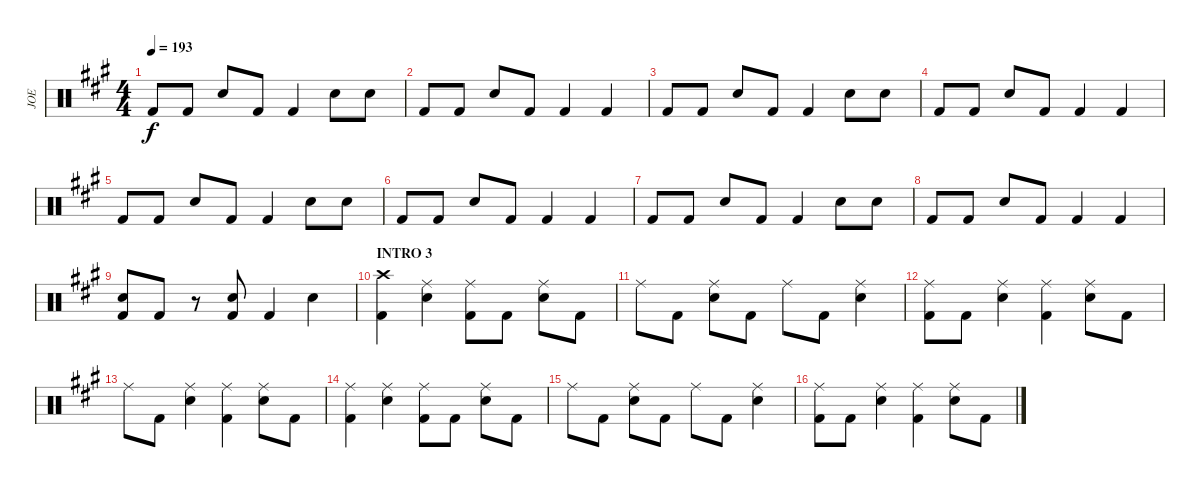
\track ("JOE" "JOE") {instrument percussion}
\staff {score}
\articulation defaults
\ts (4 4)
\tempo 193
\clef neutral
\ks a "Kick (hit) 2".8{dy f} "Kick (hit) 2".8 "Snare (hit) 2".8 "Kick (hit) 2".8 "Kick (hit) 2".4 "Snare (hit) 2".8 "Snare (hit) 2".8
|
"Kick (hit) 2".8 "Kick (hit) 2".8 "Snare (hit) 2".8 "Kick (hit) 2".8 "Kick (hit) 2".4 "Kick (hit) 2".4 |
"Kick (hit) 2".8 "Kick (hit) 2".8 "Snare (hit) 2".8 "Kick (hit) 2".8 "Kick (hit) 2".4 "Snare (hit) 2".8 "Snare (hit) 2".8 |
"Kick (hit) 2".8 "Kick (hit) 2".8 "Snare (hit) 2".8 "Kick (hit) 2".8 "Kick (hit) 2".4 "Kick (hit) 2".4 |
"Kick (hit) 2".8 "Kick (hit) 2".8 "Snare (hit) 2".8 "Kick (hit) 2".8 "Kick (hit) 2".4 "Snare (hit) 2".8 "Snare (hit) 2".8 |
"Kick (hit) 2".8 "Kick (hit) 2".8 "Snare (hit) 2".8 "Kick (hit) 2".8 "Kick (hit) 2".4 "Kick (hit) 2".4 |
"Kick (hit) 2".8 "Kick (hit) 2".8 "Snare (hit) 2".8 "Kick (hit) 2".8 "Kick (hit) 2".4 "Snare (hit) 2".8 "Snare (hit) 2".8 |
"Kick (hit) 2".8 "Kick (hit) 2".8 "Snare (hit) 2".8 "Kick (hit) 2".8 "Kick (hit) 2".4 "Kick (hit) 2".4 |
("Snare (hit) 2" "Kick (hit) 2").8 "Kick (hit) 2".8 r.8 ("Snare (hit) 2" "Kick (hit) 2").8 "Kick (hit) 2".4 "Snare (hit) 2".4 |
\section ("" "INTRO 3")
("Crash high (hit)" "Kick (hit) 2").4 ("Ride (middle)" "Snare (hit) 2").4 ("Ride (middle)" "Kick (hit) 2").8 "Kick (hit) 2".8 ("Ride (middle)" "Snare (hit) 2").8 "Kick (hit) 2".8 |
"Ride (middle)".8 "Kick (hit) 2".8 ("Ride (middle)" "Snare (hit) 2").8 "Kick (hit) 2".8 "Ride (middle)".8 "Kick (hit) 2".8 ("Ride (middle)" "Snare (hit) 2").4 |
("Ride (middle)" "Kick (hit) 2").8 "Kick (hit) 2".8 ("Ride (middle)" "Snare (hit) 2").4 ("Ride (middle)" "Kick (hit) 2").4 ("Ride (middle)" "Snare (hit) 2").8 "Kick (hit) 2".8 |
"Ride (middle)".8 "Kick (hit) 2".8 ("Ride (middle)" "Snare (hit) 2").4 ("Ride (middle)" "Kick (hit) 2").4 ("Ride (middle)" "Snare (hit) 2").8 "Kick (hit) 2".8 |
("Ride (middle)" "Kick (hit) 2").4 ("Ride (middle)" "Snare (hit) 2").4 ("Ride (middle)" "Kick (hit) 2").8 "Kick (hit) 2".8 ("Ride (middle)" "Snare (hit) 2").8 "Kick (hit) 2".8 |
"Ride (middle)".8 "Kick (hit) 2".8 ("Ride (middle)" "Snare (hit) 2").8 "Kick (hit) 2".8 "Ride (middle)".8 "Kick (hit) 2".8 ("Ride (middle)" "Snare (hit) 2").4 |
("Ride (middle)" "Kick (hit) 2").8 "Kick (hit) 2".8 ("Ride (middle)" "Snare (hit) 2").4 ("Ride (middle)" "Kick (hit) 2").4 ("Ride (middle)" "Snare (hit) 2").8 "Kick (hit) 2".8
